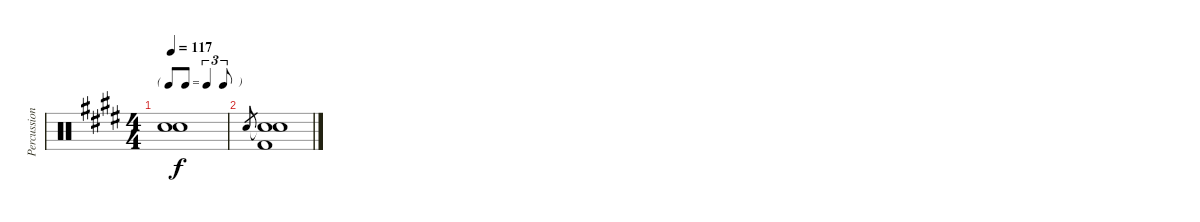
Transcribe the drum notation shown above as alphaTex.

\track ("Percussion" "Percussion") {instrument percussion}
\staff {score}
\articulation defaults
\ts (4 4)
\tf triplet8th
\tempo 117
\clef neutral
\ks e
("Snare (hit)"{t} "Snare (hit)"{t}).1{dy f} |
"Snare (hit) 2".8{gr} ("Snare (hit)"{t} "Snare (hit) 2" "Kick (hit) 2").1
